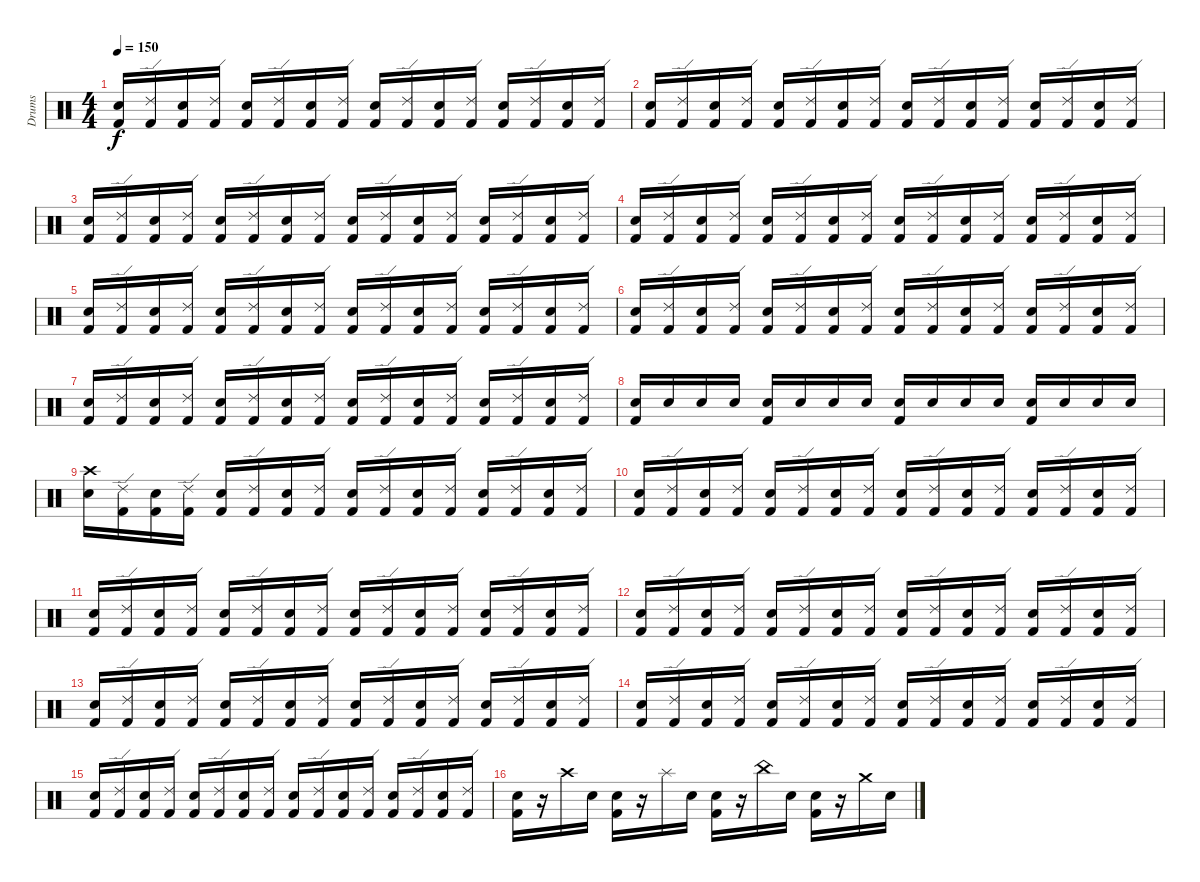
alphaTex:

\track ("Drums" "Drums") {instrument percussion}
\staff {score}
\articulation defaults
\ts (4 4)
\tempo 150
\clef neutral
\ks c
("Snare (hit) 2" "Kick (hit) 2").16{dy f} ("Ride (edge) 2" "Kick (hit) 2").16 ("Snare (hit) 2" "Kick (hit) 2").16 ("Ride (edge) 2" "Kick (hit) 2").16 ("Snare (hit) 2" "Kick (hit) 2").16 ("Ride (edge) 2" "Kick (hit) 2").16 ("Snare (hit) 2" "Kick (hit) 2").16 ("Ride (edge) 2" "Kick (hit) 2").16 ("Snare (hit) 2" "Kick (hit) 2").16 ("Ride (edge) 2" "Kick (hit) 2").16 ("Snare (hit) 2" "Kick (hit) 2").16 ("Ride (edge) 2" "Kick (hit) 2").16 ("Snare (hit) 2" "Kick (hit) 2").16 ("Ride (edge) 2" "Kick (hit) 2").16 ("Snare (hit) 2" "Kick (hit) 2").16 ("Ride (edge) 2" "Kick (hit) 2").16 |
("Snare (hit) 2" "Kick (hit) 2").16 ("Ride (edge) 2" "Kick (hit) 2").16 ("Snare (hit) 2" "Kick (hit) 2").16 ("Ride (edge) 2" "Kick (hit) 2").16 ("Snare (hit) 2" "Kick (hit) 2").16 ("Ride (edge) 2" "Kick (hit) 2").16 ("Snare (hit) 2" "Kick (hit) 2").16 ("Ride (edge) 2" "Kick (hit) 2").16 ("Snare (hit) 2" "Kick (hit) 2").16 ("Ride (edge) 2" "Kick (hit) 2").16 ("Snare (hit) 2" "Kick (hit) 2").16 ("Ride (edge) 2" "Kick (hit) 2").16 ("Snare (hit) 2" "Kick (hit) 2").16 ("Ride (edge) 2" "Kick (hit) 2").16 ("Snare (hit) 2" "Kick (hit) 2").16 ("Ride (edge) 2" "Kick (hit) 2").16 |
("Snare (hit) 2" "Kick (hit) 2").16 ("Ride (edge) 2" "Kick (hit) 2").16 ("Snare (hit) 2" "Kick (hit) 2").16 ("Ride (edge) 2" "Kick (hit) 2").16 ("Snare (hit) 2" "Kick (hit) 2").16 ("Ride (edge) 2" "Kick (hit) 2").16 ("Snare (hit) 2" "Kick (hit) 2").16 ("Ride (edge) 2" "Kick (hit) 2").16 ("Snare (hit) 2" "Kick (hit) 2").16 ("Ride (edge) 2" "Kick (hit) 2").16 ("Snare (hit) 2" "Kick (hit) 2").16 ("Ride (edge) 2" "Kick (hit) 2").16 ("Snare (hit) 2" "Kick (hit) 2").16 ("Ride (edge) 2" "Kick (hit) 2").16 ("Snare (hit) 2" "Kick (hit) 2").16 ("Ride (edge) 2" "Kick (hit) 2").16 |
("Snare (hit) 2" "Kick (hit) 2").16 ("Ride (edge) 2" "Kick (hit) 2").16 ("Snare (hit) 2" "Kick (hit) 2").16 ("Ride (edge) 2" "Kick (hit) 2").16 ("Snare (hit) 2" "Kick (hit) 2").16 ("Ride (edge) 2" "Kick (hit) 2").16 ("Snare (hit) 2" "Kick (hit) 2").16 ("Ride (edge) 2" "Kick (hit) 2").16 ("Snare (hit) 2" "Kick (hit) 2").16 ("Ride (edge) 2" "Kick (hit) 2").16 ("Snare (hit) 2" "Kick (hit) 2").16 ("Ride (edge) 2" "Kick (hit) 2").16 ("Snare (hit) 2" "Kick (hit) 2").16 ("Ride (edge) 2" "Kick (hit) 2").16 ("Snare (hit) 2" "Kick (hit) 2").16 ("Ride (edge) 2" "Kick (hit) 2").16 |
("Snare (hit) 2" "Kick (hit) 2").16 ("Ride (edge) 2" "Kick (hit) 2").16 ("Snare (hit) 2" "Kick (hit) 2").16 ("Ride (edge) 2" "Kick (hit) 2").16 ("Snare (hit) 2" "Kick (hit) 2").16 ("Ride (edge) 2" "Kick (hit) 2").16 ("Snare (hit) 2" "Kick (hit) 2").16 ("Ride (edge) 2" "Kick (hit) 2").16 ("Snare (hit) 2" "Kick (hit) 2").16 ("Ride (edge) 2" "Kick (hit) 2").16 ("Snare (hit) 2" "Kick (hit) 2").16 ("Ride (edge) 2" "Kick (hit) 2").16 ("Snare (hit) 2" "Kick (hit) 2").16 ("Ride (edge) 2" "Kick (hit) 2").16 ("Snare (hit) 2" "Kick (hit) 2").16 ("Ride (edge) 2" "Kick (hit) 2").16 |
("Snare (hit) 2" "Kick (hit) 2").16 ("Ride (edge) 2" "Kick (hit) 2").16 ("Snare (hit) 2" "Kick (hit) 2").16 ("Ride (edge) 2" "Kick (hit) 2").16 ("Snare (hit) 2" "Kick (hit) 2").16 ("Ride (edge) 2" "Kick (hit) 2").16 ("Snare (hit) 2" "Kick (hit) 2").16 ("Ride (edge) 2" "Kick (hit) 2").16 ("Snare (hit) 2" "Kick (hit) 2").16 ("Ride (edge) 2" "Kick (hit) 2").16 ("Snare (hit) 2" "Kick (hit) 2").16 ("Ride (edge) 2" "Kick (hit) 2").16 ("Snare (hit) 2" "Kick (hit) 2").16 ("Ride (edge) 2" "Kick (hit) 2").16 ("Snare (hit) 2" "Kick (hit) 2").16 ("Ride (edge) 2" "Kick (hit) 2").16 |
("Snare (hit) 2" "Kick (hit) 2").16 ("Ride (edge) 2" "Kick (hit) 2").16 ("Snare (hit) 2" "Kick (hit) 2").16 ("Ride (edge) 2" "Kick (hit) 2").16 ("Snare (hit) 2" "Kick (hit) 2").16 ("Ride (edge) 2" "Kick (hit) 2").16 ("Snare (hit) 2" "Kick (hit) 2").16 ("Ride (edge) 2" "Kick (hit) 2").16 ("Snare (hit) 2" "Kick (hit) 2").16 ("Ride (edge) 2" "Kick (hit) 2").16 ("Snare (hit) 2" "Kick (hit) 2").16 ("Ride (edge) 2" "Kick (hit) 2").16 ("Snare (hit) 2" "Kick (hit) 2").16 ("Ride (edge) 2" "Kick (hit) 2").16 ("Snare (hit) 2" "Kick (hit) 2").16 ("Ride (edge) 2" "Kick (hit) 2").16 |
("Snare (hit) 2" "Kick (hit) 2").16 "Snare (hit) 2".16 "Snare (hit) 2".16 "Snare (hit) 2".16 ("Snare (hit) 2" "Kick (hit) 2").16 "Snare (hit) 2".16 "Snare (hit) 2".16 "Snare (hit) 2".16 ("Snare (hit) 2" "Kick (hit) 2").16 "Snare (hit) 2".16 "Snare (hit) 2".16 "Snare (hit) 2".16 ("Snare (hit) 2" "Kick (hit) 2").16 "Snare (hit) 2".16 "Snare (hit) 2".16 "Snare (hit) 2".16 |
("Crash high (hit)" "Snare (hit) 2").16 ("Ride (edge) 2" "Kick (hit) 2").16 ("Snare (hit) 2" "Kick (hit) 2").16 ("Ride (edge) 2" "Kick (hit) 2").16 ("Snare (hit) 2" "Kick (hit) 2").16 ("Ride (edge) 2" "Kick (hit) 2").16 ("Snare (hit) 2" "Kick (hit) 2").16 ("Ride (edge) 2" "Kick (hit) 2").16 ("Snare (hit) 2" "Kick (hit) 2").16 ("Ride (edge) 2" "Kick (hit) 2").16 ("Snare (hit) 2" "Kick (hit) 2").16 ("Ride (edge) 2" "Kick (hit) 2").16 ("Snare (hit) 2" "Kick (hit) 2").16 ("Ride (edge) 2" "Kick (hit) 2").16 ("Snare (hit) 2" "Kick (hit) 2").16 ("Ride (edge) 2" "Kick (hit) 2").16 |
("Snare (hit) 2" "Kick (hit) 2").16 ("Ride (edge) 2" "Kick (hit) 2").16 ("Snare (hit) 2" "Kick (hit) 2").16 ("Ride (edge) 2" "Kick (hit) 2").16 ("Snare (hit) 2" "Kick (hit) 2").16 ("Ride (edge) 2" "Kick (hit) 2").16 ("Snare (hit) 2" "Kick (hit) 2").16 ("Ride (edge) 2" "Kick (hit) 2").16 ("Snare (hit) 2" "Kick (hit) 2").16 ("Ride (edge) 2" "Kick (hit) 2").16 ("Snare (hit) 2" "Kick (hit) 2").16 ("Ride (edge) 2" "Kick (hit) 2").16 ("Snare (hit) 2" "Kick (hit) 2").16 ("Ride (edge) 2" "Kick (hit) 2").16 ("Snare (hit) 2" "Kick (hit) 2").16 ("Ride (edge) 2" "Kick (hit) 2").16 |
("Snare (hit) 2" "Kick (hit) 2").16 ("Ride (edge) 2" "Kick (hit) 2").16 ("Snare (hit) 2" "Kick (hit) 2").16 ("Ride (edge) 2" "Kick (hit) 2").16 ("Snare (hit) 2" "Kick (hit) 2").16 ("Ride (edge) 2" "Kick (hit) 2").16 ("Snare (hit) 2" "Kick (hit) 2").16 ("Ride (edge) 2" "Kick (hit) 2").16 ("Snare (hit) 2" "Kick (hit) 2").16 ("Ride (edge) 2" "Kick (hit) 2").16 ("Snare (hit) 2" "Kick (hit) 2").16 ("Ride (edge) 2" "Kick (hit) 2").16 ("Snare (hit) 2" "Kick (hit) 2").16 ("Ride (edge) 2" "Kick (hit) 2").16 ("Snare (hit) 2" "Kick (hit) 2").16 ("Ride (edge) 2" "Kick (hit) 2").16 |
("Snare (hit) 2" "Kick (hit) 2").16 ("Ride (edge) 2" "Kick (hit) 2").16 ("Snare (hit) 2" "Kick (hit) 2").16 ("Ride (edge) 2" "Kick (hit) 2").16 ("Snare (hit) 2" "Kick (hit) 2").16 ("Ride (edge) 2" "Kick (hit) 2").16 ("Snare (hit) 2" "Kick (hit) 2").16 ("Ride (edge) 2" "Kick (hit) 2").16 ("Snare (hit) 2" "Kick (hit) 2").16 ("Ride (edge) 2" "Kick (hit) 2").16 ("Snare (hit) 2" "Kick (hit) 2").16 ("Ride (edge) 2" "Kick (hit) 2").16 ("Snare (hit) 2" "Kick (hit) 2").16 ("Ride (edge) 2" "Kick (hit) 2").16 ("Snare (hit) 2" "Kick (hit) 2").16 ("Ride (edge) 2" "Kick (hit) 2").16 |
("Snare (hit) 2" "Kick (hit) 2").16 ("Ride (edge) 2" "Kick (hit) 2").16 ("Snare (hit) 2" "Kick (hit) 2").16 ("Ride (edge) 2" "Kick (hit) 2").16 ("Snare (hit) 2" "Kick (hit) 2").16 ("Ride (edge) 2" "Kick (hit) 2").16 ("Snare (hit) 2" "Kick (hit) 2").16 ("Ride (edge) 2" "Kick (hit) 2").16 ("Snare (hit) 2" "Kick (hit) 2").16 ("Ride (edge) 2" "Kick (hit) 2").16 ("Snare (hit) 2" "Kick (hit) 2").16 ("Ride (edge) 2" "Kick (hit) 2").16 ("Snare (hit) 2" "Kick (hit) 2").16 ("Ride (edge) 2" "Kick (hit) 2").16 ("Snare (hit) 2" "Kick (hit) 2").16 ("Ride (edge) 2" "Kick (hit) 2").16 |
("Snare (hit) 2" "Kick (hit) 2").16 ("Ride (edge) 2" "Kick (hit) 2").16 ("Snare (hit) 2" "Kick (hit) 2").16 ("Ride (edge) 2" "Kick (hit) 2").16 ("Snare (hit) 2" "Kick (hit) 2").16 ("Ride (edge) 2" "Kick (hit) 2").16 ("Snare (hit) 2" "Kick (hit) 2").16 ("Ride (edge) 2" "Kick (hit) 2").16 ("Snare (hit) 2" "Kick (hit) 2").16 ("Ride (edge) 2" "Kick (hit) 2").16 ("Snare (hit) 2" "Kick (hit) 2").16 ("Ride (edge) 2" "Kick (hit) 2").16 ("Snare (hit) 2" "Kick (hit) 2").16 ("Ride (edge) 2" "Kick (hit) 2").16 ("Snare (hit) 2" "Kick (hit) 2").16 ("Ride (edge) 2" "Kick (hit) 2").16 |
("Snare (hit) 2" "Kick (hit) 2").16 ("Ride (edge) 2" "Kick (hit) 2").16 ("Snare (hit) 2" "Kick (hit) 2").16 ("Ride (edge) 2" "Kick (hit) 2").16 ("Snare (hit) 2" "Kick (hit) 2").16 ("Ride (edge) 2" "Kick (hit) 2").16 ("Snare (hit) 2" "Kick (hit) 2").16 ("Ride (edge) 2" "Kick (hit) 2").16 ("Snare (hit) 2" "Kick (hit) 2").16 ("Ride (edge) 2" "Kick (hit) 2").16 ("Snare (hit) 2" "Kick (hit) 2").16 ("Ride (edge) 2" "Kick (hit) 2").16 ("Snare (hit) 2" "Kick (hit) 2").16 ("Ride (edge) 2" "Kick (hit) 2").16 ("Snare (hit) 2" "Kick (hit) 2").16 ("Ride (edge) 2" "Kick (hit) 2").16 |
("Snare (hit) 2" "Kick (hit) 2").16 r.16 "Crash high (hit)".16 "Snare (hit) 2".16 ("Snare (hit) 2" "Kick (hit) 2").16 r.16 "Splash (hit)".16 "Snare (hit) 2".16 ("Snare (hit) 2" "Kick (hit) 2").16 r.16 "China (hit)".16 "Snare (hit) 2".16 ("Snare (hit) 2" "Kick (hit) 2").16 r.16 "Crash medium (hit)".16 "Snare (hit) 2".16
